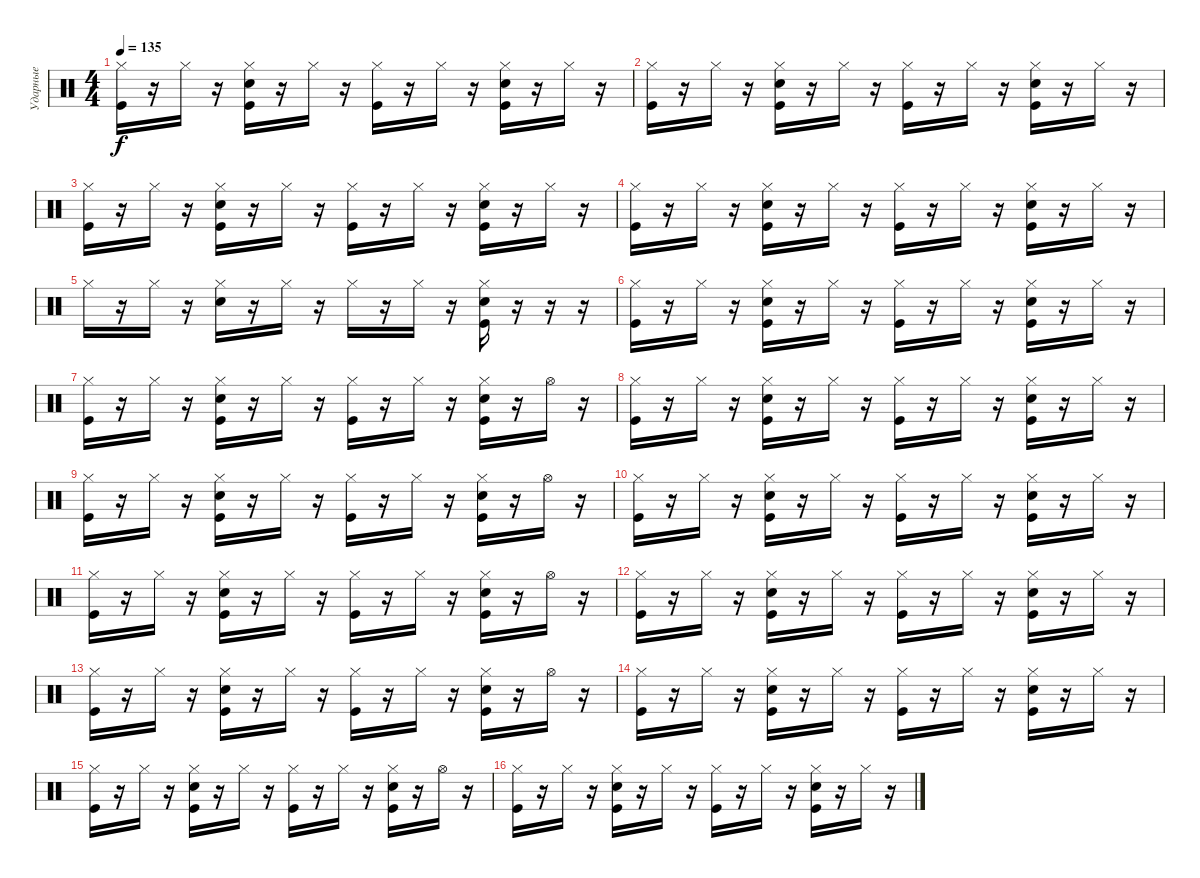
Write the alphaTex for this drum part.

\track ("Ударные" "Ударные") {instrument percussion}
\staff {score}
\articulation defaults
\ts (4 4)
\tempo 135
\clef neutral
\ks c
("Hi-Hat (closed)" "Kick (hit)").16{dy f} r.16 "Hi-Hat (closed)".16 r.16 ("Hi-Hat (closed)" "Kick (hit)" "Snare (hit) 2").16 r.16 "Hi-Hat (closed)".16 r.16 ("Hi-Hat (closed)" "Kick (hit)").16 r.16 "Hi-Hat (closed)".16 r.16 ("Hi-Hat (closed)" "Snare (hit) 2" "Kick (hit)").16 r.16 "Hi-Hat (closed)".16 r.16 |
("Hi-Hat (closed)" "Kick (hit)").16 r.16 "Hi-Hat (closed)".16 r.16 ("Hi-Hat (closed)" "Kick (hit)" "Snare (hit) 2").16 r.16 "Hi-Hat (closed)".16 r.16 ("Hi-Hat (closed)" "Kick (hit)").16 r.16 "Hi-Hat (closed)".16 r.16 ("Hi-Hat (closed)" "Snare (hit) 2" "Kick (hit)").16 r.16 "Hi-Hat (closed)".16 r.16 |
("Hi-Hat (closed)" "Kick (hit)").16 r.16 "Hi-Hat (closed)".16 r.16 ("Hi-Hat (closed)" "Kick (hit)" "Snare (hit) 2").16 r.16 "Hi-Hat (closed)".16 r.16 ("Hi-Hat (closed)" "Kick (hit)").16 r.16 "Hi-Hat (closed)".16 r.16 ("Hi-Hat (closed)" "Snare (hit) 2" "Kick (hit)").16 r.16 "Hi-Hat (closed)".16 r.16 |
("Hi-Hat (closed)" "Kick (hit)").16 r.16 "Hi-Hat (closed)".16 r.16 ("Hi-Hat (closed)" "Kick (hit)" "Snare (hit) 2").16 r.16 "Hi-Hat (closed)".16 r.16 ("Hi-Hat (closed)" "Kick (hit)").16 r.16 "Hi-Hat (closed)".16 r.16 ("Hi-Hat (closed)" "Snare (hit) 2" "Kick (hit)").16 r.16 "Hi-Hat (closed)".16 r.16 |
"Hi-Hat (closed)".16 r.16 "Hi-Hat (closed)".16 r.16 ("Hi-Hat (closed)" "Snare (hit) 2").16 r.16 "Hi-Hat (closed)".16 r.16 "Hi-Hat (closed)".16 r.16 "Hi-Hat (closed)".16 r.16 ("Hi-Hat (closed)" "Snare (hit) 2" "Kick (hit)").16 r.16 r.16 r.16 |
("Hi-Hat (closed)" "Kick (hit)").16 r.16 "Hi-Hat (closed)".16 r.16 ("Hi-Hat (closed)" "Kick (hit)" "Snare (hit) 2").16 r.16 "Hi-Hat (closed)".16 r.16 ("Hi-Hat (closed)" "Kick (hit)").16 r.16 "Hi-Hat (closed)".16 r.16 ("Hi-Hat (closed)" "Snare (hit) 2" "Kick (hit)").16 r.16 "Hi-Hat (closed)".16 r.16 |
("Hi-Hat (closed)" "Kick (hit)").16 r.16 "Hi-Hat (closed)".16 r.16 ("Hi-Hat (closed)" "Kick (hit)" "Snare (hit) 2").16 r.16 "Hi-Hat (closed)".16 r.16 ("Hi-Hat (closed)" "Kick (hit)").16 r.16 "Hi-Hat (closed)".16 r.16 ("Hi-Hat (closed)" "Snare (hit) 2" "Kick (hit)").16 r.16 "Hi-Hat (open)".16 r.16 |
("Hi-Hat (closed)" "Kick (hit)").16 r.16 "Hi-Hat (closed)".16 r.16 ("Hi-Hat (closed)" "Kick (hit)" "Snare (hit) 2").16 r.16 "Hi-Hat (closed)".16 r.16 ("Hi-Hat (closed)" "Kick (hit)").16 r.16 "Hi-Hat (closed)".16 r.16 ("Hi-Hat (closed)" "Snare (hit) 2" "Kick (hit)").16 r.16 "Hi-Hat (closed)".16 r.16 |
("Hi-Hat (closed)" "Kick (hit)").16 r.16 "Hi-Hat (closed)".16 r.16 ("Hi-Hat (closed)" "Kick (hit)" "Snare (hit) 2").16 r.16 "Hi-Hat (closed)".16 r.16 ("Hi-Hat (closed)" "Kick (hit)").16 r.16 "Hi-Hat (closed)".16 r.16 ("Hi-Hat (closed)" "Snare (hit) 2" "Kick (hit)").16 r.16 "Hi-Hat (open)".16 r.16 |
("Hi-Hat (closed)" "Kick (hit)").16 r.16 "Hi-Hat (closed)".16 r.16 ("Hi-Hat (closed)" "Kick (hit)" "Snare (hit) 2").16 r.16 "Hi-Hat (closed)".16 r.16 ("Hi-Hat (closed)" "Kick (hit)").16 r.16 "Hi-Hat (closed)".16 r.16 ("Hi-Hat (closed)" "Snare (hit) 2" "Kick (hit)").16 r.16 "Hi-Hat (closed)".16 r.16 |
("Hi-Hat (closed)" "Kick (hit)").16 r.16 "Hi-Hat (closed)".16 r.16 ("Hi-Hat (closed)" "Kick (hit)" "Snare (hit) 2").16 r.16 "Hi-Hat (closed)".16 r.16 ("Hi-Hat (closed)" "Kick (hit)").16 r.16 "Hi-Hat (closed)".16 r.16 ("Hi-Hat (closed)" "Snare (hit) 2" "Kick (hit)").16 r.16 "Hi-Hat (open)".16 r.16 |
("Hi-Hat (closed)" "Kick (hit)").16 r.16 "Hi-Hat (closed)".16 r.16 ("Hi-Hat (closed)" "Kick (hit)" "Snare (hit) 2").16 r.16 "Hi-Hat (closed)".16 r.16 ("Hi-Hat (closed)" "Kick (hit)").16 r.16 "Hi-Hat (closed)".16 r.16 ("Hi-Hat (closed)" "Snare (hit) 2" "Kick (hit)").16 r.16 "Hi-Hat (closed)".16 r.16 |
("Hi-Hat (closed)" "Kick (hit)").16 r.16 "Hi-Hat (closed)".16 r.16 ("Hi-Hat (closed)" "Kick (hit)" "Snare (hit) 2").16 r.16 "Hi-Hat (closed)".16 r.16 ("Hi-Hat (closed)" "Kick (hit)").16 r.16 "Hi-Hat (closed)".16 r.16 ("Hi-Hat (closed)" "Snare (hit) 2" "Kick (hit)").16 r.16 "Hi-Hat (open)".16 r.16 |
("Hi-Hat (closed)" "Kick (hit)").16 r.16 "Hi-Hat (closed)".16 r.16 ("Hi-Hat (closed)" "Kick (hit)" "Snare (hit) 2").16 r.16 "Hi-Hat (closed)".16 r.16 ("Hi-Hat (closed)" "Kick (hit)").16 r.16 "Hi-Hat (closed)".16 r.16 ("Hi-Hat (closed)" "Snare (hit) 2" "Kick (hit)").16 r.16 "Hi-Hat (closed)".16 r.16 |
("Hi-Hat (closed)" "Kick (hit)").16 r.16 "Hi-Hat (closed)".16 r.16 ("Hi-Hat (closed)" "Kick (hit)" "Snare (hit) 2").16 r.16 "Hi-Hat (closed)".16 r.16 ("Hi-Hat (closed)" "Kick (hit)").16 r.16 "Hi-Hat (closed)".16 r.16 ("Hi-Hat (closed)" "Snare (hit) 2" "Kick (hit)").16 r.16 "Hi-Hat (open)".16 r.16 |
("Hi-Hat (closed)" "Kick (hit)").16 r.16 "Hi-Hat (closed)".16 r.16 ("Hi-Hat (closed)" "Kick (hit)" "Snare (hit) 2").16 r.16 "Hi-Hat (closed)".16 r.16 ("Hi-Hat (closed)" "Kick (hit)").16 r.16 "Hi-Hat (closed)".16 r.16 ("Hi-Hat (closed)" "Snare (hit) 2" "Kick (hit)").16 r.16 "Hi-Hat (closed)".16 r.16
